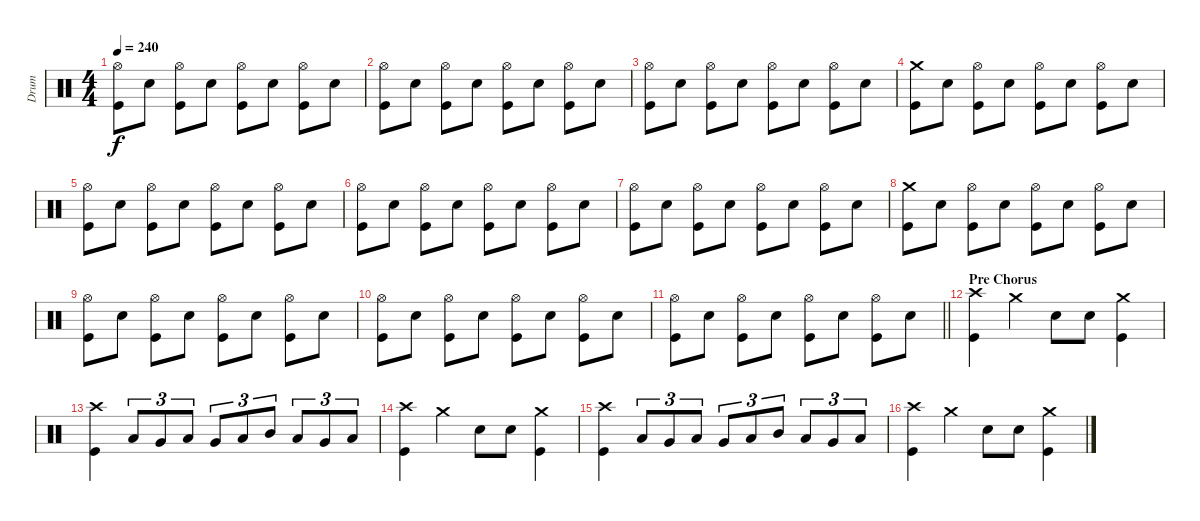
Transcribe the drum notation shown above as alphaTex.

\track ("Drum" "Drum") {instrument percussion}
\staff {score}
\articulation defaults
\ts (4 4)
\tempo 240
\clef neutral
\ks c
("Hi-Hat (open)" "Kick (hit)").8{dy f} "Snare (hit) 2".8 ("Hi-Hat (open)" "Kick (hit)").8 "Snare (hit) 2".8 ("Hi-Hat (open)" "Kick (hit)").8 "Snare (hit) 2".8 ("Hi-Hat (open)" "Kick (hit)").8 "Snare (hit) 2".8 |
("Hi-Hat (open)" "Kick (hit)").8 "Snare (hit) 2".8 ("Hi-Hat (open)" "Kick (hit)").8 "Snare (hit) 2".8 ("Hi-Hat (open)" "Kick (hit)").8 "Snare (hit) 2".8 ("Hi-Hat (open)" "Kick (hit)").8 "Snare (hit) 2".8 |
("Hi-Hat (open)" "Kick (hit)").8 "Snare (hit) 2".8 ("Hi-Hat (open)" "Kick (hit)").8 "Snare (hit) 2".8 ("Hi-Hat (open)" "Kick (hit)").8 "Snare (hit) 2".8 ("Hi-Hat (open)" "Kick (hit)").8 "Snare (hit) 2".8 |
("Crash medium (hit)" "Kick (hit)").8 "Snare (hit) 2".8 ("Hi-Hat (open)" "Kick (hit)").8 "Snare (hit) 2".8 ("Hi-Hat (open)" "Kick (hit)").8 "Snare (hit) 2".8 ("Hi-Hat (open)" "Kick (hit)").8 "Snare (hit) 2".8 |
("Hi-Hat (open)" "Kick (hit)").8 "Snare (hit) 2".8 ("Hi-Hat (open)" "Kick (hit)").8 "Snare (hit) 2".8 ("Hi-Hat (open)" "Kick (hit)").8 "Snare (hit) 2".8 ("Hi-Hat (open)" "Kick (hit)").8 "Snare (hit) 2".8 |
("Hi-Hat (open)" "Kick (hit)").8 "Snare (hit) 2".8 ("Hi-Hat (open)" "Kick (hit)").8 "Snare (hit) 2".8 ("Hi-Hat (open)" "Kick (hit)").8 "Snare (hit) 2".8 ("Hi-Hat (open)" "Kick (hit)").8 "Snare (hit) 2".8 |
("Hi-Hat (open)" "Kick (hit)").8 "Snare (hit) 2".8 ("Hi-Hat (open)" "Kick (hit)").8 "Snare (hit) 2".8 ("Hi-Hat (open)" "Kick (hit)").8 "Snare (hit) 2".8 ("Hi-Hat (open)" "Kick (hit)").8 "Snare (hit) 2".8 |
("Crash medium (hit)" "Kick (hit)").8 "Snare (hit) 2".8 ("Hi-Hat (open)" "Kick (hit)").8 "Snare (hit) 2".8 ("Hi-Hat (open)" "Kick (hit)").8 "Snare (hit) 2".8 ("Hi-Hat (open)" "Kick (hit)").8 "Snare (hit) 2".8 |
("Hi-Hat (open)" "Kick (hit)").8 "Snare (hit) 2".8 ("Hi-Hat (open)" "Kick (hit)").8 "Snare (hit) 2".8 ("Hi-Hat (open)" "Kick (hit)").8 "Snare (hit) 2".8 ("Hi-Hat (open)" "Kick (hit)").8 "Snare (hit) 2".8 |
("Hi-Hat (open)" "Kick (hit)").8 "Snare (hit) 2".8 ("Hi-Hat (open)" "Kick (hit)").8 "Snare (hit) 2".8 ("Hi-Hat (open)" "Kick (hit)").8 "Snare (hit) 2".8 ("Hi-Hat (open)" "Kick (hit)").8 "Snare (hit) 2".8 |
\barLineRight lightlight
("Hi-Hat (open)" "Kick (hit)").8 "Snare (hit) 2".8 ("Hi-Hat (open)" "Kick (hit)").8 "Snare (hit) 2".8 ("Hi-Hat (open)" "Kick (hit)").8 "Snare (hit) 2".8 ("Hi-Hat (open)" "Kick (hit)").8 "Snare (hit) 2".8 |
\section ("" "Pre Chorus")
("Crash high (hit)" "Kick (hit)").4 "Crash medium (hit)".4 "Snare (hit) 2".8 "Snare (hit) 2".8 ("Crash medium (hit)" "Kick (hit)").4 |
("Crash high (hit)" "Kick (hit)").4 "Low Floor Tom (hit)".8{tu (3 2)} "Very Low Tom (hit)".8{tu (3 2)} "Low Tom (hit)".8{tu (3 2)} "Very Low Tom (hit)".8{tu (3 2)} "Low Tom (hit)".8{tu (3 2)} "Mid Tom (hit)".8{tu (3 2)} "Low Tom (hit)".8{tu (3 2)} "Very Low Tom (hit)".8{tu (3 2)} "Low Tom (hit)".8{tu (3 2)} |
("Crash high (hit)" "Kick (hit)").4 "Crash medium (hit)".4 "Snare (hit) 2".8 "Snare (hit) 2".8 ("Crash medium (hit)" "Kick (hit)").4 |
("Crash high (hit)" "Kick (hit)").4 "Low Floor Tom (hit)".8{tu (3 2)} "Very Low Tom (hit)".8{tu (3 2)} "Low Tom (hit)".8{tu (3 2)} "Very Low Tom (hit)".8{tu (3 2)} "Low Tom (hit)".8{tu (3 2)} "Mid Tom (hit)".8{tu (3 2)} "Low Tom (hit)".8{tu (3 2)} "Very Low Tom (hit)".8{tu (3 2)} "Low Tom (hit)".8{tu (3 2)} |
("Crash high (hit)" "Kick (hit)").4 "Crash medium (hit)".4 "Snare (hit) 2".8 "Snare (hit) 2".8 ("Crash medium (hit)" "Kick (hit)").4
